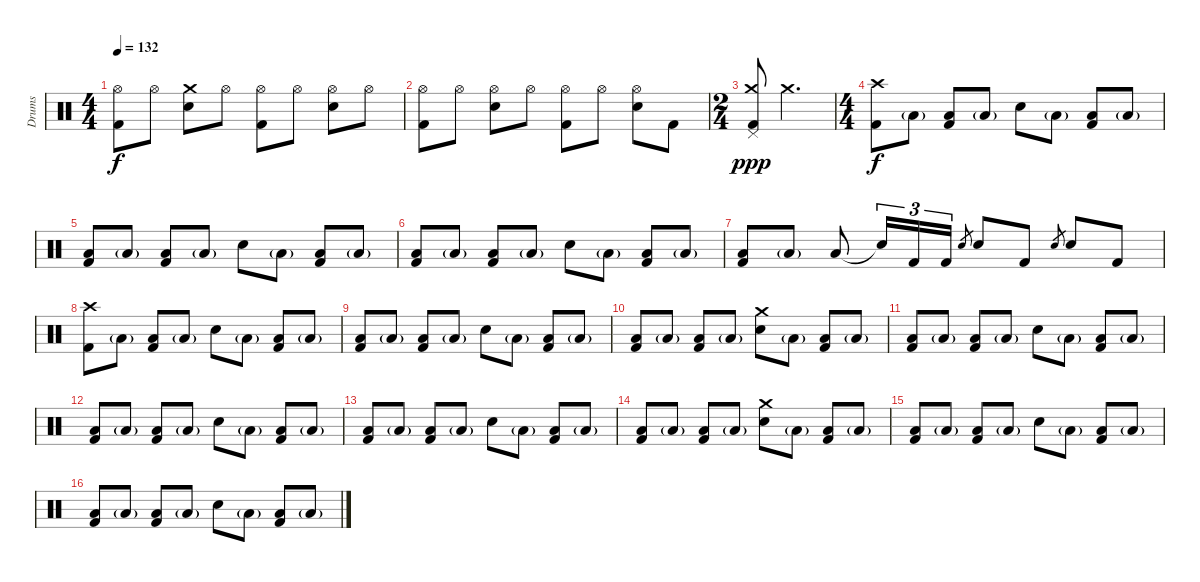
\track ("Drums" "Drums") {instrument percussion}
\staff {score}
\articulation defaults
\ts (4 4)
\tempo 132
\clef neutral
\ks c
("Hi-Hat (open)" "Kick (hit) 2").8{dy f} "Hi-Hat (open)".8 ("Crash medium (hit)" "Snare (hit) 2").8 "Hi-Hat (open)".8 ("Hi-Hat (open)" "Kick (hit) 2").8 "Hi-Hat (open)".8 ("Hi-Hat (open)" "Snare (hit) 2").8 "Hi-Hat (open)".8 |
("Hi-Hat (open)" "Kick (hit) 2").8 "Hi-Hat (open)".8 ("Hi-Hat (open)" "Snare (hit) 2").8 "Hi-Hat (open)".8 ("Hi-Hat (open)" "Kick (hit) 2").8 "Hi-Hat (open)".8 ("Hi-Hat (open)" "Snare (hit) 2").8 "Kick (hit) 2".8 |
\ts (2 4)
("Crash medium (hit)" "Pedal Hi-Hat (hit)" "Kick (hit) 2").8{dy ppp} "Crash medium (hit)".4{d} |
\ts (4 4)
("Crash high (hit)" "Kick (hit) 2").8{dy f} "Low Floor Tom (hit)"{g}.8 ("Low Floor Tom (hit)" "Kick (hit) 2").8 "Low Floor Tom (hit)"{g}.8 "Snare (hit) 2".8 "Low Floor Tom (hit)"{g}.8 ("Low Floor Tom (hit)" "Kick (hit) 2").8 "Low Floor Tom (hit)"{g}.8 |
("Low Floor Tom (hit)" "Kick (hit) 2").8 "Low Floor Tom (hit)"{g}.8 ("Low Floor Tom (hit)" "Kick (hit) 2").8 "Low Floor Tom (hit)"{g}.8 "Snare (hit) 2".8 "Low Floor Tom (hit)"{g}.8 ("Low Floor Tom (hit)" "Kick (hit) 2").8 "Low Floor Tom (hit)"{g}.8 |
("Low Floor Tom (hit)" "Kick (hit) 2").8 "Low Floor Tom (hit)"{g}.8 ("Low Floor Tom (hit)" "Kick (hit) 2").8 "Low Floor Tom (hit)"{g}.8 "Snare (hit) 2".8 "Low Floor Tom (hit)"{g}.8 ("Low Floor Tom (hit)" "Kick (hit) 2").8 "Low Floor Tom (hit)"{g}.8 |
("Low Floor Tom (hit)" "Kick (hit) 2").8 "Low Floor Tom (hit)"{g}.8 "Low Floor Tom (hit)".8 "Snare (hit)"{t}.16{tu (3 2)} "Kick (hit) 2".16{tu (3 2)} "Kick (hit) 2".16{tu (3 2)} "Snare (hit) 2".8{gr} "Snare (hit) 2".8 "Kick (hit) 2".8 "Snare (hit) 2".8{gr} "Snare (hit) 2".8 "Kick (hit) 2".8 |
("Crash high (hit)" "Kick (hit) 2").8 "Low Floor Tom (hit)"{g}.8 ("Low Floor Tom (hit)" "Kick (hit) 2").8 "Low Floor Tom (hit)"{g}.8 "Snare (hit) 2".8 "Low Floor Tom (hit)"{g}.8 ("Low Floor Tom (hit)" "Kick (hit) 2").8 "Low Floor Tom (hit)"{g}.8 |
("Low Floor Tom (hit)" "Kick (hit) 2").8 "Low Floor Tom (hit)"{g}.8 ("Low Floor Tom (hit)" "Kick (hit) 2").8 "Low Floor Tom (hit)"{g}.8 "Snare (hit) 2".8 "Low Floor Tom (hit)"{g}.8 ("Low Floor Tom (hit)" "Kick (hit) 2").8 "Low Floor Tom (hit)"{g}.8 |
("Low Floor Tom (hit)" "Kick (hit) 2").8 "Low Floor Tom (hit)"{g}.8 ("Low Floor Tom (hit)" "Kick (hit) 2").8 "Low Floor Tom (hit)"{g}.8 ("Crash medium (hit)" "Snare (hit) 2").8 "Low Floor Tom (hit)"{g}.8 ("Low Floor Tom (hit)" "Kick (hit) 2").8 "Low Floor Tom (hit)"{g}.8 |
("Low Floor Tom (hit)" "Kick (hit) 2").8 "Low Floor Tom (hit)"{g}.8 ("Low Floor Tom (hit)" "Kick (hit) 2").8 "Low Floor Tom (hit)"{g}.8 "Snare (hit) 2".8 "Low Floor Tom (hit)"{g}.8 ("Low Floor Tom (hit)" "Kick (hit) 2").8 "Low Floor Tom (hit)"{g}.8 |
("Low Floor Tom (hit)" "Kick (hit) 2").8 "Low Floor Tom (hit)"{g}.8 ("Low Floor Tom (hit)" "Kick (hit) 2").8 "Low Floor Tom (hit)"{g}.8 "Snare (hit) 2".8 "Low Floor Tom (hit)"{g}.8 ("Low Floor Tom (hit)" "Kick (hit) 2").8 "Low Floor Tom (hit)"{g}.8 |
("Low Floor Tom (hit)" "Kick (hit) 2").8 "Low Floor Tom (hit)"{g}.8 ("Low Floor Tom (hit)" "Kick (hit) 2").8 "Low Floor Tom (hit)"{g}.8 "Snare (hit) 2".8 "Low Floor Tom (hit)"{g}.8 ("Low Floor Tom (hit)" "Kick (hit) 2").8 "Low Floor Tom (hit)"{g}.8 |
("Low Floor Tom (hit)" "Kick (hit) 2").8 "Low Floor Tom (hit)"{g}.8 ("Low Floor Tom (hit)" "Kick (hit) 2").8 "Low Floor Tom (hit)"{g}.8 ("Crash medium (hit)" "Snare (hit) 2").8 "Low Floor Tom (hit)"{g}.8 ("Low Floor Tom (hit)" "Kick (hit) 2").8 "Low Floor Tom (hit)"{g}.8 |
("Low Floor Tom (hit)" "Kick (hit) 2").8 "Low Floor Tom (hit)"{g}.8 ("Low Floor Tom (hit)" "Kick (hit) 2").8 "Low Floor Tom (hit)"{g}.8 "Snare (hit) 2".8 "Low Floor Tom (hit)"{g}.8 ("Low Floor Tom (hit)" "Kick (hit) 2").8 "Low Floor Tom (hit)"{g}.8 |
("Low Floor Tom (hit)" "Kick (hit) 2").8 "Low Floor Tom (hit)"{g}.8 ("Low Floor Tom (hit)" "Kick (hit) 2").8 "Low Floor Tom (hit)"{g}.8 "Snare (hit) 2".8 "Low Floor Tom (hit)"{g}.8 ("Low Floor Tom (hit)" "Kick (hit) 2").8 "Low Floor Tom (hit)"{g}.8
